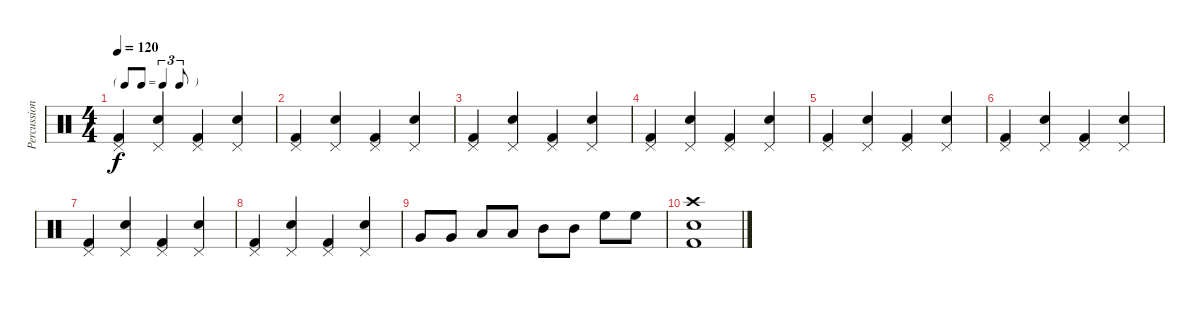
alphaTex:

\track ("Percussion" "Percussion") {instrument percussion}
\staff {score}
\articulation defaults
\ts (4 4)
\tf triplet8th
\tempo 120
\clef neutral
\ks c
("Pedal Hi-Hat (hit)" "Kick (hit) 2").4{dy f} ("Pedal Hi-Hat (hit)" "Electric Snare (hit)").4 ("Pedal Hi-Hat (hit)" "Kick (hit) 2").4 ("Pedal Hi-Hat (hit)" "Electric Snare (hit)").4 |
("Pedal Hi-Hat (hit)" "Kick (hit) 2").4 ("Pedal Hi-Hat (hit)" "Electric Snare (hit)").4 ("Pedal Hi-Hat (hit)" "Kick (hit) 2").4 ("Pedal Hi-Hat (hit)" "Electric Snare (hit)").4 |
("Pedal Hi-Hat (hit)" "Kick (hit) 2").4 ("Pedal Hi-Hat (hit)" "Electric Snare (hit)").4 ("Pedal Hi-Hat (hit)" "Kick (hit) 2").4 ("Pedal Hi-Hat (hit)" "Electric Snare (hit)").4 |
("Pedal Hi-Hat (hit)" "Kick (hit) 2").4 ("Pedal Hi-Hat (hit)" "Electric Snare (hit)").4 ("Pedal Hi-Hat (hit)" "Kick (hit) 2").4 ("Pedal Hi-Hat (hit)" "Electric Snare (hit)").4 |
("Pedal Hi-Hat (hit)" "Kick (hit) 2").4 ("Pedal Hi-Hat (hit)" "Electric Snare (hit)").4 ("Pedal Hi-Hat (hit)" "Kick (hit) 2").4 ("Pedal Hi-Hat (hit)" "Electric Snare (hit)").4 |
("Pedal Hi-Hat (hit)" "Kick (hit) 2").4 ("Pedal Hi-Hat (hit)" "Electric Snare (hit)").4 ("Pedal Hi-Hat (hit)" "Kick (hit) 2").4 ("Pedal Hi-Hat (hit)" "Electric Snare (hit)").4 |
("Pedal Hi-Hat (hit)" "Kick (hit) 2").4 ("Pedal Hi-Hat (hit)" "Electric Snare (hit)").4 ("Pedal Hi-Hat (hit)" "Kick (hit) 2").4 ("Pedal Hi-Hat (hit)" "Electric Snare (hit)").4 |
("Pedal Hi-Hat (hit)" "Kick (hit) 2").4 ("Pedal Hi-Hat (hit)" "Electric Snare (hit)").4 ("Pedal Hi-Hat (hit)" "Kick (hit) 2").4 ("Pedal Hi-Hat (hit)" "Electric Snare (hit)").4 |
"Very Low Tom (hit)".8 "Very Low Tom (hit)".8 "Low Tom (hit)".8 "Low Tom (hit)".8 "Mid Tom (hit)".8 "Mid Tom (hit)".8 "High Floor Tom (hit)".8 "High Floor Tom (hit)".8 |
("Kick (hit) 2" "Crash high (hit)" "Electric Snare (hit)").1
